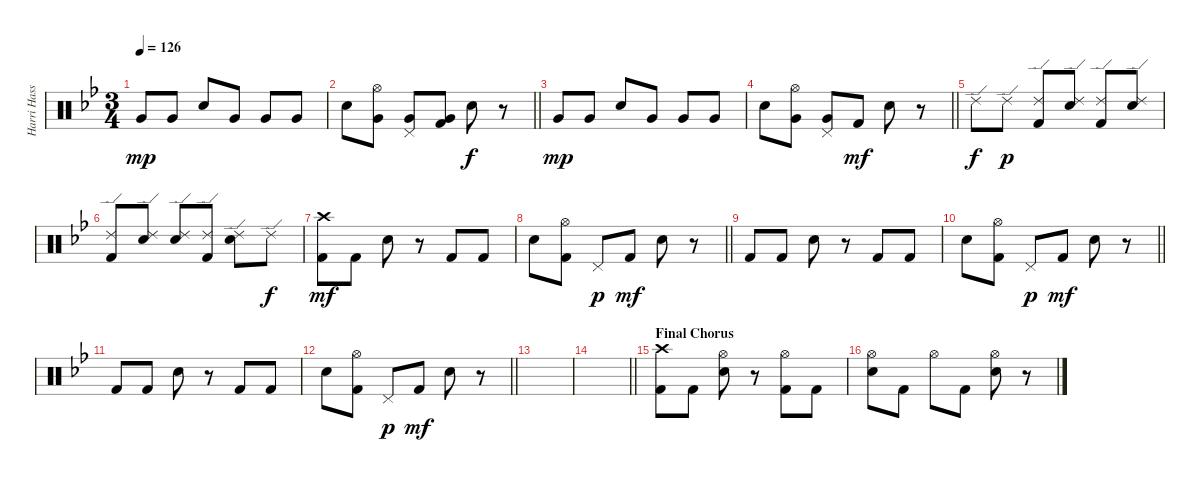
\track ("Harri Hassin (drums)" "Harri Hass") {instrument percussion}
\staff {score}
\articulation defaults
\ts (3 4)
\tempo 126
\clef neutral
\ks bb "Very Low Tom (hit)".8{dy mp} "Very Low Tom (hit)".8 "Electric Snare (hit)".8 "Very Low Tom (hit)".8 "Very Low Tom (hit)".8 "Very Low Tom (hit)".8
|
\barLineRight lightlight "Electric Snare (hit)".8
("Hi-Hat (open)" "Very Low Tom (hit)").8 ("Pedal Hi-Hat (hit)" "Very Low Tom (hit)").8 ("Very Low Tom (hit)" "Kick (hit) 2").8 "Electric Snare (hit)".8{dy f} r.8 |
"Very Low Tom (hit)".8{dy mp} "Very Low Tom (hit)".8 "Electric Snare (hit)".8 "Very Low Tom (hit)".8 "Very Low Tom (hit)".8 "Very Low Tom (hit)".8 |
\barLineRight lightlight "Electric Snare (hit)".8
("Hi-Hat (open)" "Very Low Tom (hit)").8 ("Pedal Hi-Hat (hit)" "Very Low Tom (hit)").8 "Kick (hit) 2".8{dy mf} "Electric Snare (hit)".8 r.8 |
"Ride (edge) 2".8{dy f} "Ride (edge) 2".8{dy p} ("Ride (edge) 2" "Kick (hit) 2").8 ("Ride (edge) 2" "Electric Snare (hit)").8 ("Ride (edge) 2" "Kick (hit) 2").8 ("Ride (edge) 2" "Electric Snare (hit)").8 |
("Ride (edge) 2" "Kick (hit) 2").8 ("Ride (edge) 2" "Electric Snare (hit)").8 ("Ride (edge) 2" "Electric Snare (hit)").8 ("Ride (edge) 2" "Kick (hit) 2").8 ("Ride (edge) 2" "Electric Snare (hit)").8 "Ride (edge) 2".8{dy f} |
("Crash high (hit)" "Kick (hit) 2").8{dy mf} "Kick (hit) 2".8 "Electric Snare (hit)".8 r.8 "Kick (hit) 2".8 "Kick (hit) 2".8 |
\barLineRight lightlight "Electric Snare (hit)".8
("Hi-Hat (open)" "Kick (hit) 2").8 "Pedal Hi-Hat (hit)".8{dy p} "Kick (hit) 2".8{dy mf} "Electric Snare (hit)".8 r.8 |
"Kick (hit) 2".8 "Kick (hit) 2".8 "Electric Snare (hit)".8 r.8 "Kick (hit) 2".8 "Kick (hit) 2".8 |
\barLineRight lightlight "Electric Snare (hit)".8
("Hi-Hat (open)" "Kick (hit) 2").8 "Pedal Hi-Hat (hit)".8{dy p} "Kick (hit) 2".8{dy mf} "Electric Snare (hit)".8 r.8 |
"Kick (hit) 2".8 "Kick (hit) 2".8 "Electric Snare (hit)".8 r.8 "Kick (hit) 2".8 "Kick (hit) 2".8 |
\barLineRight lightlight "Electric Snare (hit)".8
("Hi-Hat (open)" "Kick (hit) 2").8 "Pedal Hi-Hat (hit)".8{dy p} "Kick (hit) 2".8{dy mf} "Electric Snare (hit)".8 r.8 |
|
\barLineRight lightlight
|
\section ("" "Final Chorus")
("Crash high (hit)" "Kick (hit) 2").8 "Kick (hit) 2".8 ("Hi-Hat (open)" "Electric Snare (hit)").8 r.8 ("Hi-Hat (open)" "Kick (hit) 2").8 "Kick (hit) 2".8 |
("Hi-Hat (open)" "Electric Snare (hit)").8 "Kick (hit) 2".8 "Hi-Hat (open)".8 "Kick (hit) 2".8 ("Hi-Hat (open)" "Electric Snare (hit)").8 r.8
